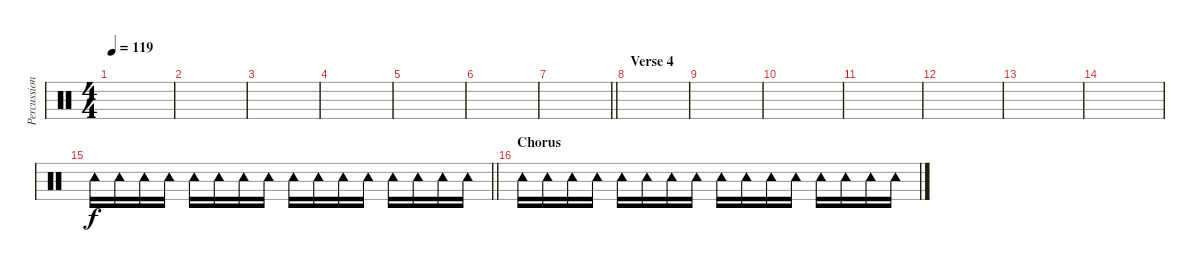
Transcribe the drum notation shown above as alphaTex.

\track ("Percussions" "Percussion") {instrument percussion}
\staff {score}
\articulation defaults
\ts (4 4)
\tempo 119
\clef neutral
\ks c
|
|
|
|
|
|
\barLineRight lightlight
|
\section ("" "Verse 4")
|
|
|
|
|
|
|
\barLineRight lightlight "Tambourine (hit)".16 "Tambourine (hit)".16 "Tambourine (hit)".16 "Tambourine (hit)".16 "Tambourine (hit)".16 "Tambourine (hit)".16 "Tambourine (hit)".16 "Tambourine (hit)".16 "Tambourine (hit)".16 "Tambourine (hit)".16 "Tambourine (hit)".16 "Tambourine (hit)".16 "Tambourine (hit)".16 "Tambourine (hit)".16 "Tambourine (hit)".16 "Tambourine (hit)".16
|
\section ("" "Chorus")
"Tambourine (hit)".16 "Tambourine (hit)".16 "Tambourine (hit)".16 "Tambourine (hit)".16 "Tambourine (hit)".16 "Tambourine (hit)".16 "Tambourine (hit)".16 "Tambourine (hit)".16 "Tambourine (hit)".16 "Tambourine (hit)".16 "Tambourine (hit)".16 "Tambourine (hit)".16 "Tambourine (hit)".16 "Tambourine (hit)".16 "Tambourine (hit)".16 "Tambourine (hit)".16
